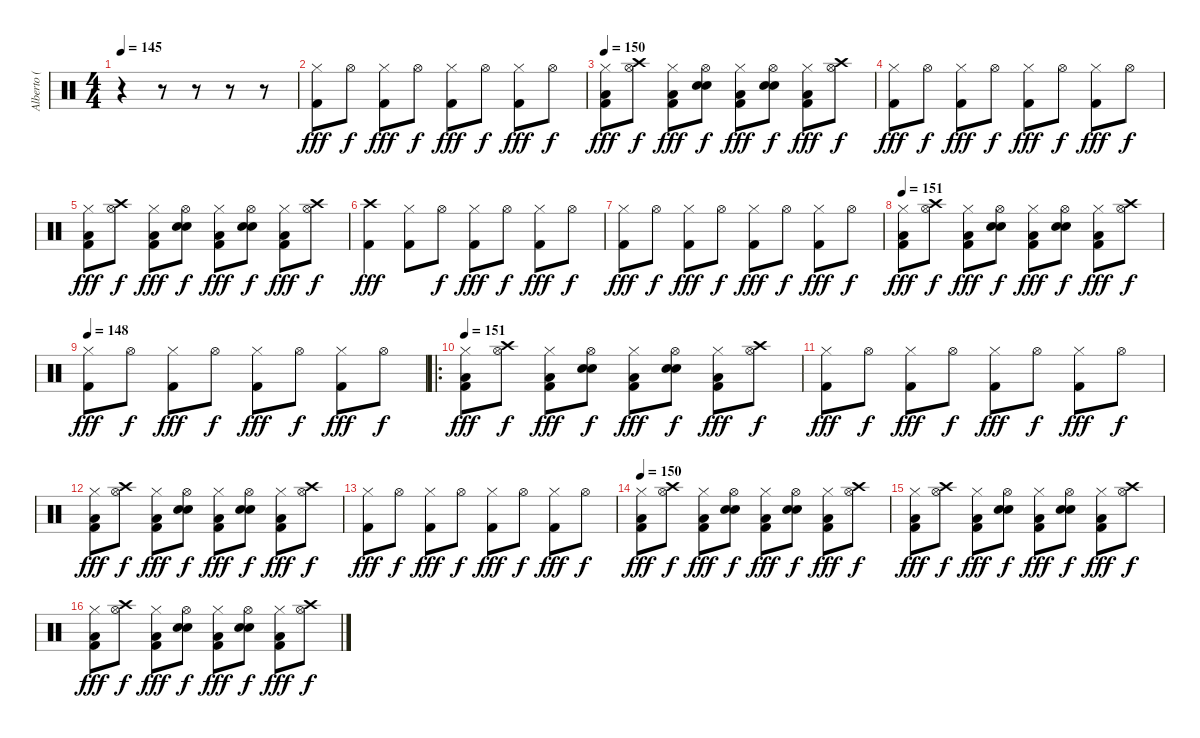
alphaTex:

\track ("Alberto ( Tohi )" "Alberto ( ") {instrument percussion}
\staff {score}
\articulation defaults
\ts (4 4)
\tempo 145
\clef neutral
\ks c
r.4{dy fff} r.8 r.8 r.8 r.8 |
("Hi-Hat (closed)" "Kick (hit) 2").8 "Hi-Hat (open)".8{dy f} ("Hi-Hat (closed)" "Kick (hit) 2").8{dy fff} "Hi-Hat (open)".8{dy f} ("Hi-Hat (closed)" "Kick (hit) 2").8{dy fff} "Hi-Hat (open)".8{dy f} ("Hi-Hat (closed)" "Kick (hit) 2").8{dy fff} "Hi-Hat (open)".8{dy f} |
\tempo 150
("Hi-Hat (closed)" "Kick (hit) 2" "Low Tom (hit)").8{dy fff balance 6} ("Hi-Hat (open)" "Crash high (hit)").8{dy f} ("Hi-Hat (closed)" "Kick (hit) 2" "Low Tom (hit)").8{dy fff} ("Hi-Hat (open)" "Snare (hit) 2" "Snare (hit) 2").8{dy f} ("Hi-Hat (closed)" "Kick (hit) 2" "Low Tom (hit)").8{dy fff} ("Hi-Hat (open)" "Snare (hit) 2" "Snare (hit) 2").8{dy f} ("Hi-Hat (closed)" "Kick (hit) 2" "Low Tom (hit)").8{dy fff} ("Hi-Hat (open)" "Crash high (hit)").8{dy f} |
("Hi-Hat (closed)" "Kick (hit) 2").8{dy fff} "Hi-Hat (open)".8{dy f} ("Hi-Hat (closed)" "Kick (hit) 2").8{dy fff} "Hi-Hat (open)".8{dy f} ("Hi-Hat (closed)" "Kick (hit) 2").8{dy fff} "Hi-Hat (open)".8{dy f} ("Hi-Hat (closed)" "Kick (hit) 2").8{dy fff} "Hi-Hat (open)".8{dy f} |
("Hi-Hat (closed)" "Kick (hit) 2" "Low Tom (hit)").8{dy fff} ("Hi-Hat (open)" "Crash high (hit)").8{dy f} ("Hi-Hat (closed)" "Kick (hit) 2" "Low Tom (hit)").8{dy fff} ("Hi-Hat (open)" "Snare (hit) 2" "Snare (hit) 2").8{dy f} ("Hi-Hat (closed)" "Kick (hit) 2" "Low Tom (hit)").8{dy fff} ("Hi-Hat (open)" "Snare (hit) 2" "Snare (hit) 2").8{dy f} ("Hi-Hat (closed)" "Kick (hit) 2" "Low Tom (hit)").8{dy fff} ("Hi-Hat (open)" "Crash high (hit)").8{dy f} |
("Kick (hit) 2" "Crash high (hit)").4{dy fff} ("Hi-Hat (closed)" "Kick (hit) 2").8 "Hi-Hat (open)".8{dy f} ("Hi-Hat (closed)" "Kick (hit) 2").8{dy fff} "Hi-Hat (open)".8{dy f} ("Hi-Hat (closed)" "Kick (hit) 2").8{dy fff} "Hi-Hat (open)".8{dy f} |
("Hi-Hat (closed)" "Kick (hit) 2").8{dy fff} "Hi-Hat (open)".8{dy f} ("Hi-Hat (closed)" "Kick (hit) 2").8{dy fff} "Hi-Hat (open)".8{dy f} ("Hi-Hat (closed)" "Kick (hit) 2").8{dy fff} "Hi-Hat (open)".8{dy f} ("Hi-Hat (closed)" "Kick (hit) 2").8{dy fff} "Hi-Hat (open)".8{dy f} |
\tempo 151
("Hi-Hat (closed)" "Kick (hit) 2" "Low Tom (hit)").8{dy fff balance 6} ("Hi-Hat (open)" "Crash high (hit)").8{dy f} ("Hi-Hat (closed)" "Kick (hit) 2" "Low Tom (hit)").8{dy fff} ("Hi-Hat (open)" "Snare (hit) 2" "Snare (hit) 2").8{dy f} ("Hi-Hat (closed)" "Kick (hit) 2" "Low Tom (hit)").8{dy fff} ("Hi-Hat (open)" "Snare (hit) 2" "Snare (hit) 2").8{dy f} ("Hi-Hat (closed)" "Kick (hit) 2" "Low Tom (hit)").8{dy fff} ("Hi-Hat (open)" "Crash high (hit)").8{dy f} |
\tempo 148
("Hi-Hat (closed)" "Kick (hit) 2").8{dy fff} "Hi-Hat (open)".8{dy f} ("Hi-Hat (closed)" "Kick (hit) 2").8{dy fff} "Hi-Hat (open)".8{dy f} ("Hi-Hat (closed)" "Kick (hit) 2").8{dy fff} "Hi-Hat (open)".8{dy f} ("Hi-Hat (closed)" "Kick (hit) 2").8{dy fff} "Hi-Hat (open)".8{dy f} |
\ro
\tempo 151
("Hi-Hat (closed)" "Kick (hit) 2" "Low Tom (hit)").8{dy fff} ("Hi-Hat (open)" "Crash high (hit)").8{dy f} ("Hi-Hat (closed)" "Kick (hit) 2" "Low Tom (hit)").8{dy fff} ("Hi-Hat (open)" "Snare (hit) 2" "Snare (hit) 2").8{dy f} ("Hi-Hat (closed)" "Kick (hit) 2" "Low Tom (hit)").8{dy fff} ("Hi-Hat (open)" "Snare (hit) 2" "Snare (hit) 2").8{dy f} ("Hi-Hat (closed)" "Kick (hit) 2" "Low Tom (hit)").8{dy fff} ("Hi-Hat (open)" "Crash high (hit)").8{dy f} |
("Hi-Hat (closed)" "Kick (hit) 2").8{dy fff} "Hi-Hat (open)".8{dy f} ("Hi-Hat (closed)" "Kick (hit) 2").8{dy fff} "Hi-Hat (open)".8{dy f} ("Hi-Hat (closed)" "Kick (hit) 2").8{dy fff} "Hi-Hat (open)".8{dy f} ("Hi-Hat (closed)" "Kick (hit) 2").8{dy fff} "Hi-Hat (open)".8{dy f} |
("Hi-Hat (closed)" "Kick (hit) 2" "Low Tom (hit)").8{dy fff} ("Hi-Hat (open)" "Crash high (hit)").8{dy f} ("Hi-Hat (closed)" "Kick (hit) 2" "Low Tom (hit)").8{dy fff} ("Hi-Hat (open)" "Snare (hit) 2" "Snare (hit) 2").8{dy f} ("Hi-Hat (closed)" "Kick (hit) 2" "Low Tom (hit)").8{dy fff} ("Hi-Hat (open)" "Snare (hit) 2" "Snare (hit) 2").8{dy f} ("Hi-Hat (closed)" "Kick (hit) 2" "Low Tom (hit)").8{dy fff} ("Hi-Hat (open)" "Crash high (hit)").8{dy f} |
("Hi-Hat (closed)" "Kick (hit) 2").8{dy fff} "Hi-Hat (open)".8{dy f} ("Hi-Hat (closed)" "Kick (hit) 2").8{dy fff} "Hi-Hat (open)".8{dy f} ("Hi-Hat (closed)" "Kick (hit) 2").8{dy fff} "Hi-Hat (open)".8{dy f} ("Hi-Hat (closed)" "Kick (hit) 2").8{dy fff} "Hi-Hat (open)".8{dy f} |
\tempo 150
("Hi-Hat (closed)" "Kick (hit) 2" "Low Tom (hit)").8{dy fff balance 12} ("Hi-Hat (open)" "Crash high (hit)").8{dy f} ("Hi-Hat (closed)" "Kick (hit) 2" "Low Tom (hit)").8{dy fff} ("Hi-Hat (open)" "Snare (hit) 2" "Snare (hit) 2").8{dy f} ("Hi-Hat (closed)" "Kick (hit) 2" "Low Tom (hit)").8{dy fff} ("Hi-Hat (open)" "Snare (hit) 2" "Snare (hit) 2").8{dy f} ("Hi-Hat (closed)" "Kick (hit) 2" "Low Tom (hit)").8{dy fff} ("Hi-Hat (open)" "Crash high (hit)").8{dy f} |
("Hi-Hat (closed)" "Kick (hit) 2" "Low Tom (hit)").8{dy fff} ("Hi-Hat (open)" "Crash high (hit)").8{dy f} ("Hi-Hat (closed)" "Kick (hit) 2" "Low Tom (hit)").8{dy fff} ("Hi-Hat (open)" "Snare (hit) 2" "Snare (hit) 2").8{dy f} ("Hi-Hat (closed)" "Kick (hit) 2" "Low Tom (hit)").8{dy fff} ("Hi-Hat (open)" "Snare (hit) 2" "Snare (hit) 2").8{dy f} ("Hi-Hat (closed)" "Kick (hit) 2" "Low Tom (hit)").8{dy fff} ("Hi-Hat (open)" "Crash high (hit)").8{dy f} |
("Hi-Hat (closed)" "Kick (hit) 2" "Low Tom (hit)").8{dy fff} ("Hi-Hat (open)" "Crash high (hit)").8{dy f} ("Hi-Hat (closed)" "Kick (hit) 2" "Low Tom (hit)").8{dy fff} ("Hi-Hat (open)" "Snare (hit) 2" "Snare (hit) 2").8{dy f} ("Hi-Hat (closed)" "Kick (hit) 2" "Low Tom (hit)").8{dy fff} ("Hi-Hat (open)" "Snare (hit) 2" "Snare (hit) 2").8{dy f} ("Hi-Hat (closed)" "Kick (hit) 2" "Low Tom (hit)").8{dy fff} ("Hi-Hat (open)" "Crash high (hit)").8{dy f}
